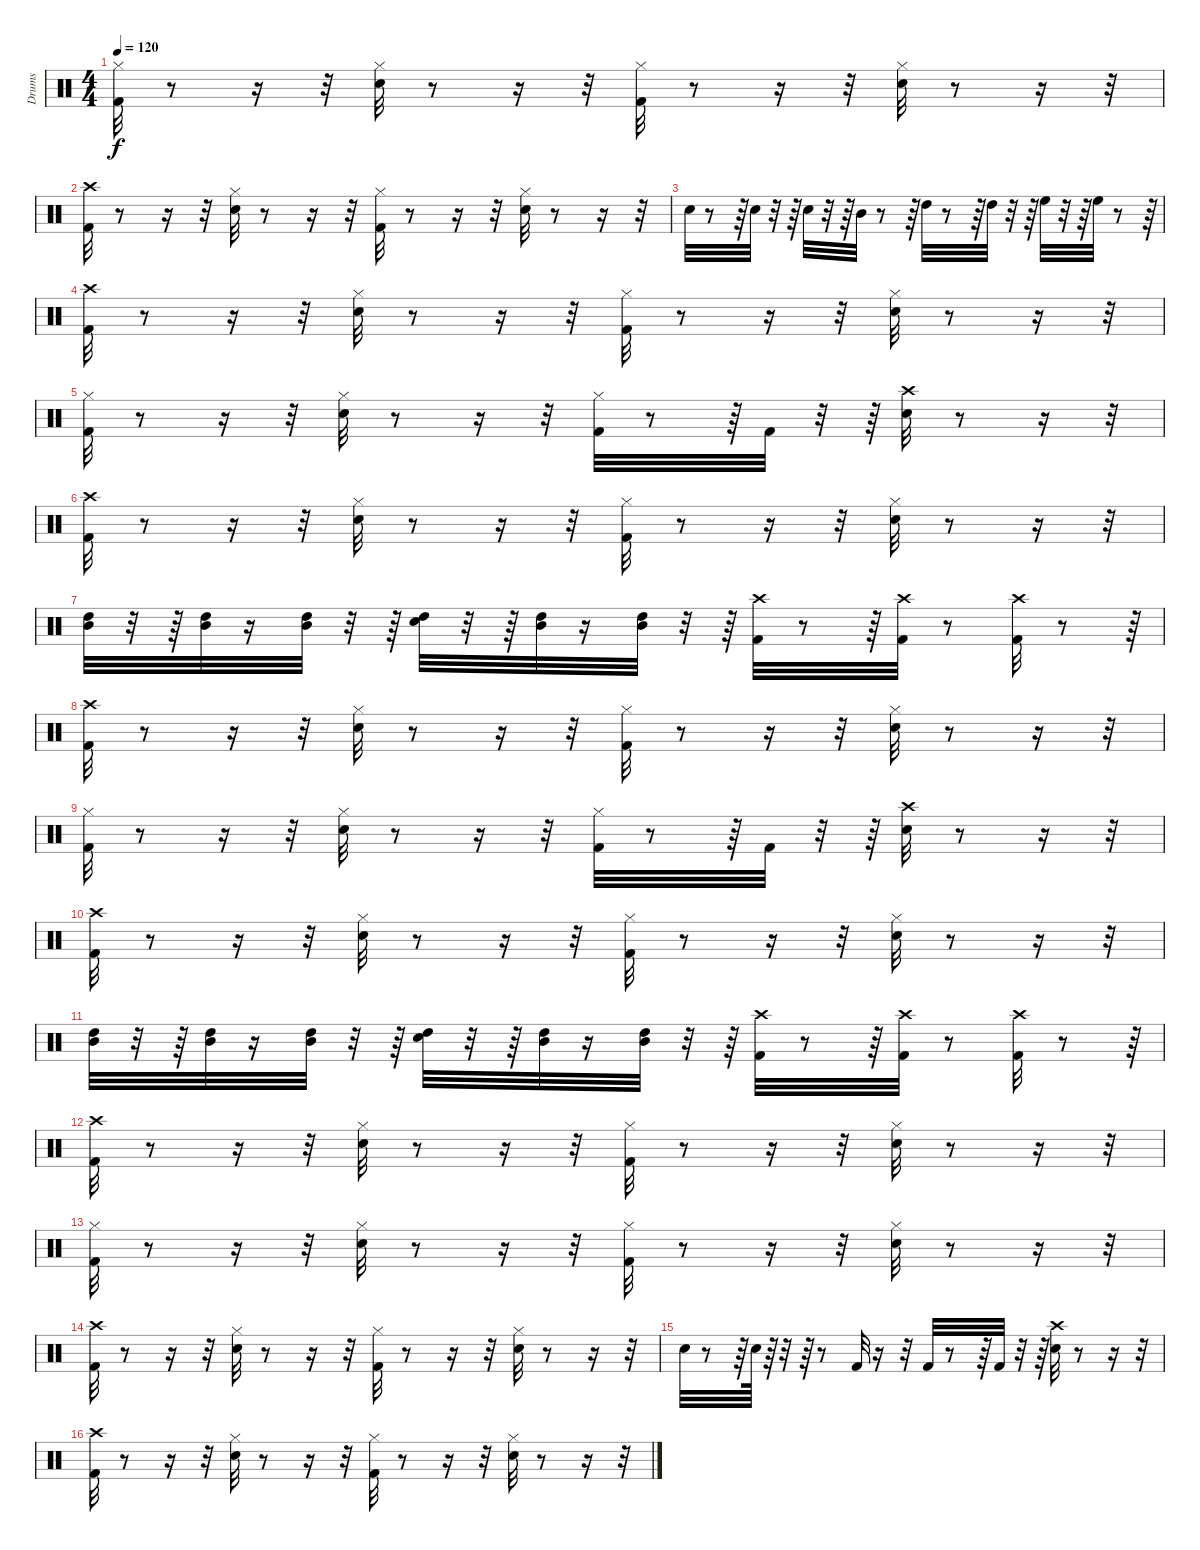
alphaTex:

\track ("Drums" "Drums") {instrument percussion}
\staff {score}
\articulation defaults
\ts (4 4)
\tempo 120
\clef neutral
\ks c
("Kick (hit) 2" "Hi-Hat (closed)").32{dy f} r.8 r.16 r.32 ("Snare (hit) 2" "Hi-Hat (closed)").32 r.8 r.16 r.32 ("Kick (hit) 2" "Hi-Hat (closed)").32 r.8 r.16 r.32 ("Snare (hit) 2" "Hi-Hat (closed)").32 r.8 r.16 r.32 |
("Crash high (hit)" "Kick (hit) 2").32 r.8 r.16 r.32 ("Hi-Hat (closed)" "Snare (hit) 2").32 r.8 r.16 r.32 ("Hi-Hat (closed)" "Kick (hit) 2").32 r.8 r.16 r.32 ("Hi-Hat (closed)" "Snare (hit) 2").32 r.8 r.16 r.32 |
"Snare (hit) 2".32 r.8 r.64 "Snare (hit) 2".32 r.32 r.64 "Snare (hit) 2".32 r.32 r.64 "Mid Tom (hit)".32 r.8 r.64 "High Tom (hit)".32 r.8 r.64 "High Tom (hit)".32 r.32 r.64 "High Floor Tom (hit)".32 r.32 r.64 "High Floor Tom (hit)".32 r.8 r.64 |
("Kick (hit) 2" "Crash high (hit)").32 r.8 r.16 r.32 ("Snare (hit) 2" "Hi-Hat (closed)").32 r.8 r.16 r.32 ("Kick (hit) 2" "Hi-Hat (closed)").32 r.8 r.16 r.32 ("Snare (hit) 2" "Hi-Hat (closed)").32 r.8 r.16 r.32 |
("Hi-Hat (closed)" "Kick (hit) 2").32 r.8 r.16 r.32 ("Snare (hit) 2" "Hi-Hat (closed)").32 r.8 r.16 r.32 ("Kick (hit) 2" "Hi-Hat (closed)").32 r.8 r.64 "Kick (hit) 2".32 r.32 r.64 ("Crash high (hit)" "Snare (hit) 2").32 r.8 r.16 r.32 |
("Kick (hit) 2" "Crash high (hit)").32 r.8 r.16 r.32 ("Snare (hit) 2" "Hi-Hat (closed)").32 r.8 r.16 r.32 ("Kick (hit) 2" "Hi-Hat (closed)").32 r.8 r.16 r.32 ("Snare (hit) 2" "Hi-Hat (closed)").32 r.8 r.16 r.32 |
("High Tom (hit)" "Mid Tom (hit)").32 r.32 r.64 ("High Tom (hit)" "Mid Tom (hit)").32 r.16 ("High Tom (hit)" "Mid Tom (hit)").32 r.32 r.64 ("Snare (hit) 2" "High Tom (hit)").32 r.32 r.64 ("High Tom (hit)" "Mid Tom (hit)").32 r.16 ("High Tom (hit)" "Mid Tom (hit)").32 r.32 r.64 ("Kick (hit) 2" "Crash high (hit)").32 r.8 r.64 ("Kick (hit) 2" "Crash high (hit)").32 r.8 ("Kick (hit) 2" "Crash high (hit)").32 r.8 r.64 |
("Kick (hit) 2" "Crash high (hit)").32 r.8 r.16 r.32 ("Snare (hit) 2" "Hi-Hat (closed)").32 r.8 r.16 r.32 ("Kick (hit) 2" "Hi-Hat (closed)").32 r.8 r.16 r.32 ("Snare (hit) 2" "Hi-Hat (closed)").32 r.8 r.16 r.32 |
("Hi-Hat (closed)" "Kick (hit) 2").32 r.8 r.16 r.32 ("Snare (hit) 2" "Hi-Hat (closed)").32 r.8 r.16 r.32 ("Kick (hit) 2" "Hi-Hat (closed)").32 r.8 r.64 "Kick (hit) 2".32 r.32 r.64 ("Crash high (hit)" "Snare (hit) 2").32 r.8 r.16 r.32 |
("Kick (hit) 2" "Crash high (hit)").32 r.8 r.16 r.32 ("Snare (hit) 2" "Hi-Hat (closed)").32 r.8 r.16 r.32 ("Kick (hit) 2" "Hi-Hat (closed)").32 r.8 r.16 r.32 ("Snare (hit) 2" "Hi-Hat (closed)").32 r.8 r.16 r.32 |
("High Tom (hit)" "Mid Tom (hit)").32 r.32 r.64 ("High Tom (hit)" "Mid Tom (hit)").32 r.16 ("High Tom (hit)" "Mid Tom (hit)").32 r.32 r.64 ("Snare (hit) 2" "High Tom (hit)").32 r.32 r.64 ("High Tom (hit)" "Mid Tom (hit)").32 r.16 ("High Tom (hit)" "Mid Tom (hit)").32 r.32 r.64 ("Kick (hit) 2" "Crash high (hit)").32 r.8 r.64 ("Kick (hit) 2" "Crash high (hit)").32 r.8 ("Kick (hit) 2" "Crash high (hit)").32 r.8 r.64 |
("Kick (hit) 2" "Crash high (hit)").32 r.8 r.16 r.32 ("Snare (hit) 2" "Hi-Hat (closed)").32 r.8 r.16 r.32 ("Kick (hit) 2" "Hi-Hat (closed)").32 r.8 r.16 r.32 ("Snare (hit) 2" "Hi-Hat (closed)").32 r.8 r.16 r.32 |
("Kick (hit) 2" "Hi-Hat (closed)").32 r.8 r.16 r.32 ("Snare (hit) 2" "Hi-Hat (closed)").32 r.8 r.16 r.32 ("Kick (hit) 2" "Hi-Hat (closed)").32 r.8 r.16 r.32 ("Snare (hit) 2" "Hi-Hat (closed)").32 r.8 r.16 r.32 |
("Kick (hit) 2" "Crash high (hit)").32 r.8 r.16 r.32 ("Hi-Hat (closed)" "Snare (hit) 2").32 r.8 r.16 r.32 ("Hi-Hat (closed)" "Kick (hit) 2").32 r.8 r.16 r.32 ("Hi-Hat (closed)" "Snare (hit) 2").32 r.8 r.16 r.32 |
"Snare (hit) 2".32 r.8 r.64 "Snare (hit) 2".64 r.64 r.32 r.64 r.8 "Kick (hit) 2".32 r.16 r.32 "Kick (hit) 2".32 r.8 r.64 "Kick (hit) 2".32 r.32 r.64 ("Crash high (hit)" "Snare (hit) 2").32 r.8 r.16 r.32 |
("Kick (hit) 2" "Crash high (hit)").32 r.8 r.16 r.32 ("Hi-Hat (closed)" "Snare (hit) 2").32 r.8 r.16 r.32 ("Hi-Hat (closed)" "Kick (hit) 2").32 r.8 r.16 r.32 ("Hi-Hat (closed)" "Snare (hit) 2").32 r.8 r.16 r.32
